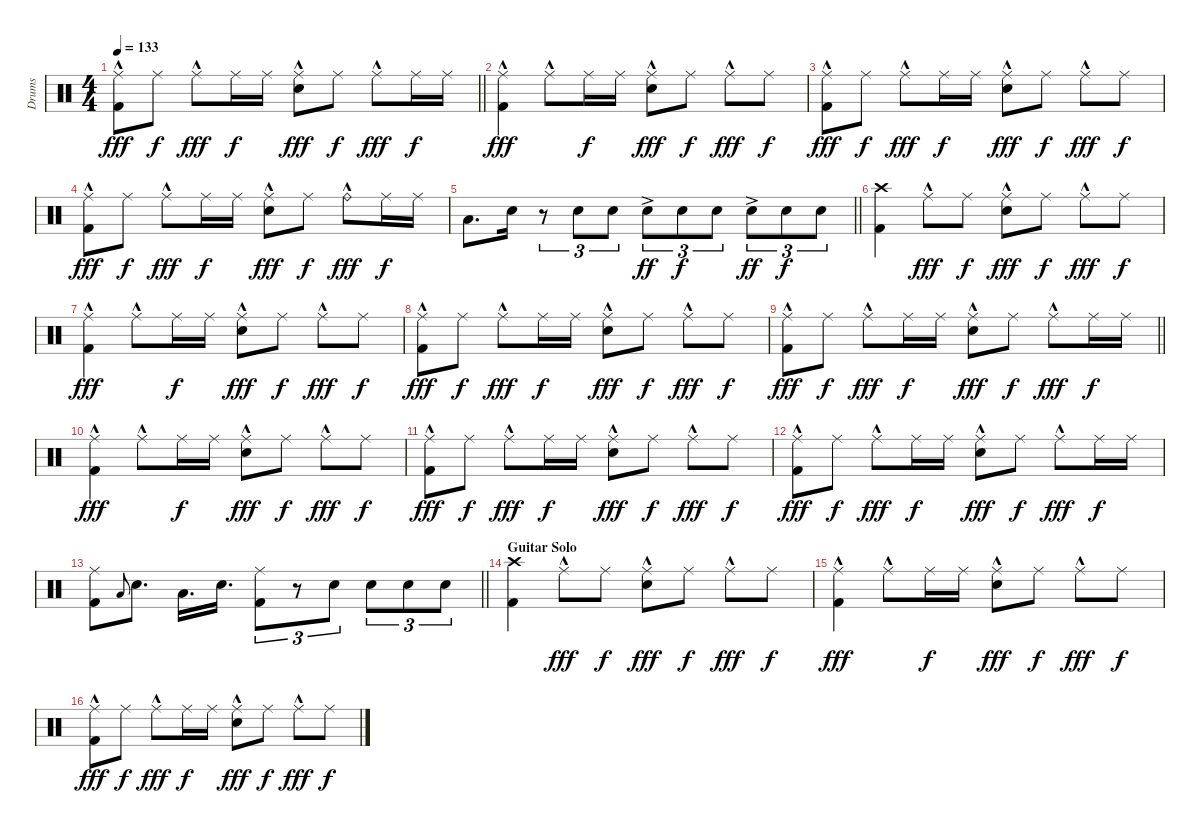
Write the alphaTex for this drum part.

\track ("Drums" "Drums") {instrument percussion}
\staff {score}
\articulation defaults
\ts (4 4)
\tempo 133
\clef neutral
\barLineRight lightlight
\ks c
("Ride (middle)"{hac} "Kick (hit) 2").8{dy fff} "Ride (middle)".8{dy f} "Ride (middle)"{hac}.8{dy fff} "Ride (middle)".16{dy f} "Ride (middle)".16 ("Ride (middle)"{hac} "Snare (hit) 2").8{dy fff} "Ride (middle)".8{dy f} "Ride (middle)"{hac}.8{dy fff} "Ride (middle)".16{dy f} "Ride (middle)".16 |
\section ("" "")
("Ride (middle)"{hac} "Kick (hit) 2").4{dy fff} "Ride (middle)"{hac}.8 "Ride (middle)".16{dy f} "Ride (middle)".16 ("Ride (middle)"{hac} "Snare (hit) 2").8{dy fff} "Ride (middle)".8{dy f} "Ride (middle)"{hac}.8{dy fff} "Ride (middle)".8{dy f} |
("Ride (middle)"{hac} "Kick (hit) 2").8{dy fff} "Ride (middle)".8{dy f} "Ride (middle)"{hac}.8{dy fff} "Ride (middle)".16{dy f} "Ride (middle)".16 ("Ride (middle)"{hac} "Snare (hit) 2").8{dy fff} "Ride (middle)".8{dy f} "Ride (middle)"{hac}.8{dy fff} "Ride (middle)".8{dy f} |
("Ride (middle)"{hac} "Kick (hit) 2").8{dy fff} "Ride (middle)".8{dy f} "Ride (middle)"{hac}.8{dy fff} "Ride (middle)".16{dy f} "Ride (middle)".16 ("Ride (middle)"{hac} "Snare (hit) 2").8{dy fff} "Ride (middle)".8{dy f} "Ride (bell)"{hac}.8{dy fff} "Ride (middle)".16{dy f} "Ride (middle)".16 |
\barLineRight lightlight "Low Tom (hit)".8{d} "Snare (hit) 2".16
r.8{tu (3 2)} "Snare (hit) 2".8{tu (3 2)} "Snare (hit) 2".8{tu (3 2)} "Snare (hit) 2"{ac}.8{tu (3 2) dy ff} "Snare (hit) 2".8{tu (3 2) dy f} "Snare (hit) 2".8{tu (3 2)} "Snare (hit) 2"{ac}.8{tu (3 2) dy ff} "Snare (hit) 2".8{tu (3 2) dy f} "Snare (hit) 2".8{tu (3 2)} |
\section ("" "")
("Crash high (hit)" "Kick (hit) 2").4 "Ride (middle)"{hac}.8{dy fff} "Ride (middle)".8{dy f} ("Ride (middle)"{hac} "Snare (hit) 2").8{dy fff} "Ride (middle)".8{dy f} "Ride (middle)"{hac}.8{dy fff} "Ride (middle)".8{dy f} |
("Ride (middle)"{hac} "Kick (hit) 2").4{dy fff} "Ride (middle)"{hac}.8 "Ride (middle)".16{dy f} "Ride (middle)".16 ("Ride (middle)"{hac} "Snare (hit) 2").8{dy fff} "Ride (middle)".8{dy f} "Ride (middle)"{hac}.8{dy fff} "Ride (middle)".8{dy f} |
("Ride (middle)"{hac} "Kick (hit) 2").8{dy fff} "Ride (middle)".8{dy f} "Ride (middle)"{hac}.8{dy fff} "Ride (middle)".16{dy f} "Ride (middle)".16 ("Ride (middle)"{hac} "Snare (hit) 2").8{dy fff} "Ride (middle)".8{dy f} "Ride (middle)"{hac}.8{dy fff} "Ride (middle)".8{dy f} |
\barLineRight lightlight
("Ride (middle)"{hac} "Kick (hit) 2").8{dy fff} "Ride (middle)".8{dy f} "Ride (middle)"{hac}.8{dy fff} "Ride (middle)".16{dy f} "Ride (middle)".16 ("Ride (middle)"{hac} "Snare (hit) 2").8{dy fff} "Ride (middle)".8{dy f} "Ride (middle)"{hac}.8{dy fff} "Ride (middle)".16{dy f} "Ride (middle)".16 |
\section ("" "")
("Ride (middle)"{hac} "Kick (hit) 2").4{dy fff} "Ride (middle)"{hac}.8 "Ride (middle)".16{dy f} "Ride (middle)".16 ("Ride (middle)"{hac} "Snare (hit) 2").8{dy fff} "Ride (middle)".8{dy f} "Ride (middle)"{hac}.8{dy fff} "Ride (middle)".8{dy f} |
("Ride (middle)"{hac} "Kick (hit) 2").8{dy fff} "Ride (middle)".8{dy f} "Ride (middle)"{hac}.8{dy fff} "Ride (middle)".16{dy f} "Ride (middle)".16 ("Ride (middle)"{hac} "Snare (hit) 2").8{dy fff} "Ride (middle)".8{dy f} "Ride (middle)"{hac}.8{dy fff} "Ride (middle)".8{dy f} |
("Ride (middle)"{hac} "Kick (hit) 2").8{dy fff} "Ride (middle)".8{dy f} "Ride (middle)"{hac}.8{dy fff} "Ride (middle)".16{dy f} "Ride (middle)".16 ("Ride (middle)"{hac} "Snare (hit) 2").8{dy fff} "Ride (middle)".8{dy f} "Ride (middle)"{hac}.8{dy fff} "Ride (middle)".16{dy f} "Ride (middle)".16 |
\barLineRight lightlight
("Ride (middle)" "Kick (hit) 2").8 "Low Tom (hit)".8{gr onbeat} "Snare (hit) 2".8{d} "Low Tom (hit)".16{d} "Snare (hit) 2".16{d} ("Ride (middle)" "Kick (hit) 2").8{tu (3 2)} r.8{tu (3 2)} "Snare (hit) 2".8{tu (3 2)} "Snare (hit) 2".8{tu (3 2)} "Snare (hit) 2".8{tu (3 2)} "Snare (hit) 2".8{tu (3 2)} |
\section ("" "Guitar Solo")
("Crash high (hit)" "Kick (hit) 2").4 "Ride (middle)"{hac}.8{dy fff} "Ride (middle)".8{dy f} ("Ride (middle)"{hac} "Snare (hit) 2").8{dy fff} "Ride (middle)".8{dy f} "Ride (middle)"{hac}.8{dy fff} "Ride (middle)".8{dy f} |
("Ride (middle)"{hac} "Kick (hit) 2").4{dy fff} "Ride (middle)"{hac}.8 "Ride (middle)".16{dy f} "Ride (middle)".16 ("Ride (middle)"{hac} "Snare (hit) 2").8{dy fff} "Ride (middle)".8{dy f} "Ride (middle)"{hac}.8{dy fff} "Ride (middle)".8{dy f} |
("Ride (middle)"{hac} "Kick (hit) 2").8{dy fff} "Ride (middle)".8{dy f} "Ride (middle)"{hac}.8{dy fff} "Ride (middle)".16{dy f} "Ride (middle)".16 ("Ride (middle)"{hac} "Snare (hit) 2").8{dy fff} "Ride (middle)".8{dy f} "Ride (middle)"{hac}.8{dy fff} "Ride (middle)".8{dy f}
